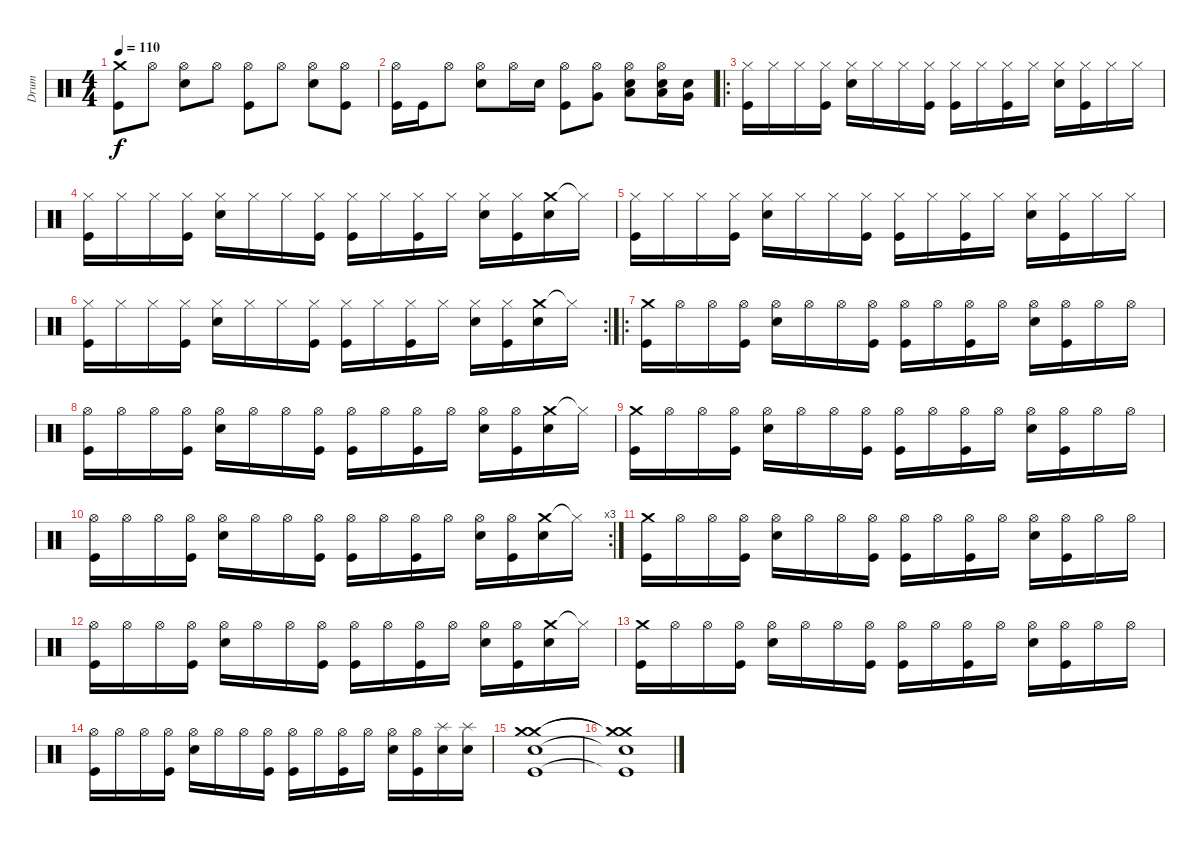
\track ("Drum" "Drum") {instrument percussion}
\staff {score}
\articulation defaults
\ts (4 4)
\tempo 110
\clef neutral
\ks c
("Crash medium (hit)" "Kick (hit)").8{dy f} "Hi-Hat (open)".8 ("Hi-Hat (open)" "Snare (hit) 2").8 "Hi-Hat (open)".8 ("Hi-Hat (open)" "Kick (hit)").8 "Hi-Hat (open)".8 ("Hi-Hat (open)" "Snare (hit) 2").8 ("Hi-Hat (open)" "Kick (hit)").8 |
("Hi-Hat (open)" "Kick (hit)").16 "Kick (hit)".16 "Hi-Hat (open)".8 ("Hi-Hat (open)" "Snare (hit) 2").8 "Hi-Hat (open)".16 "Snare (hit) 2".16 ("Hi-Hat (open)" "Kick (hit)").8 ("Hi-Hat (open)" "Very Low Tom (hit)").8 ("Hi-Hat (open)" "Low Floor Tom (hit)" "Snare (hit) 2").8 ("Hi-Hat (open)" "Low Tom (hit)" "Snare (hit) 2").16 ("Very Low Tom (hit)" "Snare (hit) 2").16 |
\ro
("Hi-Hat (closed)" "Kick (hit)").16{volume 16} "Hi-Hat (closed)".16 "Hi-Hat (closed)".16 ("Hi-Hat (closed)" "Kick (hit)").16 ("Hi-Hat (closed)" "Snare (hit) 2").16 "Hi-Hat (closed)".16 "Hi-Hat (closed)".16 ("Hi-Hat (closed)" "Kick (hit)").16 ("Hi-Hat (closed)" "Kick (hit)").16 "Hi-Hat (closed)".16 ("Hi-Hat (closed)" "Kick (hit)").16 "Hi-Hat (closed)".16 ("Hi-Hat (closed)" "Snare (hit) 2").16 ("Hi-Hat (closed)" "Kick (hit)").16 "Hi-Hat (closed)".16 "Hi-Hat (closed)".16 |
("Hi-Hat (closed)" "Kick (hit)").16 "Hi-Hat (closed)".16 "Hi-Hat (closed)".16 ("Hi-Hat (closed)" "Kick (hit)").16 ("Hi-Hat (closed)" "Snare (hit) 2").16 "Hi-Hat (closed)".16 "Hi-Hat (closed)".16 ("Hi-Hat (closed)" "Kick (hit)").16 ("Hi-Hat (closed)" "Kick (hit)").16 "Hi-Hat (closed)".16 ("Hi-Hat (closed)" "Kick (hit)").16 "Hi-Hat (closed)".16 ("Hi-Hat (closed)" "Snare (hit) 2").16 ("Hi-Hat (closed)" "Kick (hit)").16 ("Crash medium (hit)" "Snare (hit) 2").16 "Hi-Hat (closed)"{t}.16 |
("Hi-Hat (closed)" "Kick (hit)").16 "Hi-Hat (closed)".16 "Hi-Hat (closed)".16 ("Hi-Hat (closed)" "Kick (hit)").16 ("Hi-Hat (closed)" "Snare (hit) 2").16 "Hi-Hat (closed)".16 "Hi-Hat (closed)".16 ("Hi-Hat (closed)" "Kick (hit)").16 ("Hi-Hat (closed)" "Kick (hit)").16 "Hi-Hat (closed)".16 ("Hi-Hat (closed)" "Kick (hit)").16 "Hi-Hat (closed)".16 ("Hi-Hat (closed)" "Snare (hit) 2").16 ("Hi-Hat (closed)" "Kick (hit)").16 "Hi-Hat (closed)".16 "Hi-Hat (closed)".16 |
\rc 2
("Hi-Hat (closed)" "Kick (hit)").16 "Hi-Hat (closed)".16 "Hi-Hat (closed)".16 ("Hi-Hat (closed)" "Kick (hit)").16 ("Hi-Hat (closed)" "Snare (hit) 2").16 "Hi-Hat (closed)".16 "Hi-Hat (closed)".16 ("Hi-Hat (closed)" "Kick (hit)").16 ("Hi-Hat (closed)" "Kick (hit)").16 "Hi-Hat (closed)".16 ("Hi-Hat (closed)" "Kick (hit)").16 "Hi-Hat (closed)".16 ("Hi-Hat (closed)" "Snare (hit) 2").16 ("Hi-Hat (closed)" "Kick (hit)").16 ("Crash medium (hit)" "Snare (hit) 2").16 "Hi-Hat (closed)"{t}.16 |
\ro
("Crash medium (hit)" "Kick (hit)").16 "Hi-Hat (open)".16 "Hi-Hat (open)".16 ("Hi-Hat (open)" "Kick (hit)").16 ("Hi-Hat (open)" "Snare (hit) 2").16 "Hi-Hat (open)".16 "Hi-Hat (open)".16 ("Hi-Hat (open)" "Kick (hit)").16 ("Hi-Hat (open)" "Kick (hit)").16 "Hi-Hat (open)".16 ("Hi-Hat (open)" "Kick (hit)").16 "Hi-Hat (open)".16 ("Hi-Hat (open)" "Snare (hit) 2").16 ("Hi-Hat (open)" "Kick (hit)").16 "Hi-Hat (open)".16 "Hi-Hat (open)".16 |
("Hi-Hat (open)" "Kick (hit)").16 "Hi-Hat (open)".16 "Hi-Hat (open)".16 ("Hi-Hat (open)" "Kick (hit)").16 ("Hi-Hat (open)" "Snare (hit) 2").16 "Hi-Hat (open)".16 "Hi-Hat (open)".16 ("Hi-Hat (open)" "Kick (hit)").16 ("Hi-Hat (open)" "Kick (hit)").16 "Hi-Hat (open)".16 ("Hi-Hat (open)" "Kick (hit)").16 "Hi-Hat (open)".16 ("Hi-Hat (open)" "Snare (hit) 2").16 ("Hi-Hat (open)" "Kick (hit)").16 ("Crash medium (hit)" "Snare (hit) 2").16 "Hi-Hat (closed)"{t}.16 |
("Crash medium (hit)" "Kick (hit)").16 "Hi-Hat (open)".16 "Hi-Hat (open)".16 ("Hi-Hat (open)" "Kick (hit)").16 ("Hi-Hat (open)" "Snare (hit) 2").16 "Hi-Hat (open)".16 "Hi-Hat (open)".16 ("Hi-Hat (open)" "Kick (hit)").16 ("Hi-Hat (open)" "Kick (hit)").16 "Hi-Hat (open)".16 ("Hi-Hat (open)" "Kick (hit)").16 "Hi-Hat (open)".16 ("Hi-Hat (open)" "Snare (hit) 2").16 ("Hi-Hat (open)" "Kick (hit)").16 "Hi-Hat (open)".16 "Hi-Hat (open)".16 |
\rc 3
("Hi-Hat (open)" "Kick (hit)").16 "Hi-Hat (open)".16 "Hi-Hat (open)".16 ("Hi-Hat (open)" "Kick (hit)").16 ("Hi-Hat (open)" "Snare (hit) 2").16 "Hi-Hat (open)".16 "Hi-Hat (open)".16 ("Hi-Hat (open)" "Kick (hit)").16 ("Hi-Hat (open)" "Kick (hit)").16 "Hi-Hat (open)".16 ("Hi-Hat (open)" "Kick (hit)").16 "Hi-Hat (open)".16 ("Hi-Hat (open)" "Snare (hit) 2").16 ("Hi-Hat (open)" "Kick (hit)").16 ("Crash medium (hit)" "Snare (hit) 2").16 "Hi-Hat (closed)"{t}.16 |
("Crash medium (hit)" "Kick (hit)").16 "Hi-Hat (open)".16 "Hi-Hat (open)".16 ("Hi-Hat (open)" "Kick (hit)").16 ("Hi-Hat (open)" "Snare (hit) 2").16 "Hi-Hat (open)".16 "Hi-Hat (open)".16 ("Hi-Hat (open)" "Kick (hit)").16 ("Hi-Hat (open)" "Kick (hit)").16 "Hi-Hat (open)".16 ("Hi-Hat (open)" "Kick (hit)").16 "Hi-Hat (open)".16 ("Hi-Hat (open)" "Snare (hit) 2").16 ("Hi-Hat (open)" "Kick (hit)").16 "Hi-Hat (open)".16 "Hi-Hat (open)".16 |
("Hi-Hat (open)" "Kick (hit)").16 "Hi-Hat (open)".16 "Hi-Hat (open)".16 ("Hi-Hat (open)" "Kick (hit)").16 ("Hi-Hat (open)" "Snare (hit) 2").16 "Hi-Hat (open)".16 "Hi-Hat (open)".16 ("Hi-Hat (open)" "Kick (hit)").16 ("Hi-Hat (open)" "Kick (hit)").16 "Hi-Hat (open)".16 ("Hi-Hat (open)" "Kick (hit)").16 "Hi-Hat (open)".16 ("Hi-Hat (open)" "Snare (hit) 2").16 ("Hi-Hat (open)" "Kick (hit)").16 ("Crash medium (hit)" "Snare (hit) 2").16 "Hi-Hat (closed)"{t}.16 |
("Crash medium (hit)" "Kick (hit)").16 "Hi-Hat (open)".16 "Hi-Hat (open)".16 ("Hi-Hat (open)" "Kick (hit)").16 ("Hi-Hat (open)" "Snare (hit) 2").16 "Hi-Hat (open)".16 "Hi-Hat (open)".16 ("Hi-Hat (open)" "Kick (hit)").16 ("Hi-Hat (open)" "Kick (hit)").16 "Hi-Hat (open)".16 ("Hi-Hat (open)" "Kick (hit)").16 "Hi-Hat (open)".16 ("Hi-Hat (open)" "Snare (hit) 2").16 ("Hi-Hat (open)" "Kick (hit)").16 "Hi-Hat (open)".16 "Hi-Hat (open)".16 |
("Hi-Hat (open)" "Kick (hit)").16 "Hi-Hat (open)".16 "Hi-Hat (open)".16 ("Hi-Hat (open)" "Kick (hit)").16 ("Hi-Hat (open)" "Snare (hit) 2").16 "Hi-Hat (open)".16 "Hi-Hat (open)".16 ("Hi-Hat (open)" "Kick (hit)").16 ("Hi-Hat (open)" "Kick (hit)").16 "Hi-Hat (open)".16 ("Hi-Hat (open)" "Kick (hit)").16 "Hi-Hat (open)".16 ("Hi-Hat (open)" "Snare (hit) 2").16 ("Hi-Hat (open)" "Kick (hit)").16 ("Splash (hit)" "Snare (hit) 2").16 ("Splash (hit)" "Snare (hit) 2").16 |
("Crash medium (hit)" "Crash medium (hit)" "Snare (hit) 2" "Kick (hit)").1 |
("Crash medium (hit)"{t} "Crash medium (hit)"{t} "Snare (hit) 2"{t} "Kick (hit)"{t}).1
